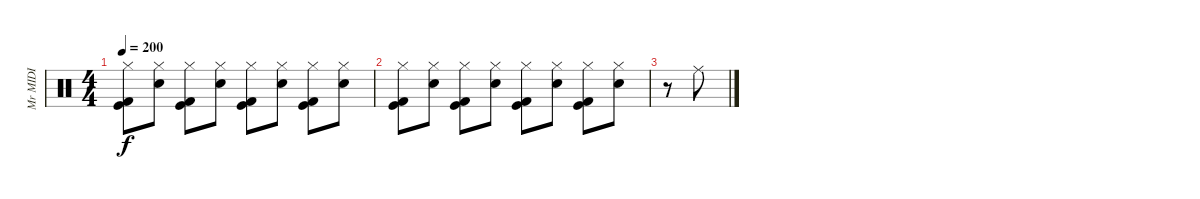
\track ("Mr MIDI" "Mr MIDI") {instrument percussion}
\staff {score}
\articulation defaults
\ts (4 4)
\tempo 200
\clef neutral
\ks c
("Hi-Hat (closed)" "Kick (hit) 2" "Kick (hit)").8{dy f} ("Hi-Hat (closed)" "Electric Snare (hit)").8 ("Hi-Hat (closed)" "Kick (hit) 2" "Kick (hit)").8 ("Hi-Hat (closed)" "Electric Snare (hit)").8 ("Hi-Hat (closed)" "Kick (hit) 2" "Kick (hit)").8 ("Hi-Hat (closed)" "Electric Snare (hit)").8 ("Hi-Hat (closed)" "Kick (hit) 2" "Kick (hit)").8 ("Hi-Hat (closed)" "Electric Snare (hit)").8 |
("Hi-Hat (closed)" "Kick (hit) 2" "Kick (hit)").8 ("Hi-Hat (closed)" "Electric Snare (hit)").8 ("Hi-Hat (closed)" "Kick (hit) 2" "Kick (hit)").8 ("Hi-Hat (closed)" "Electric Snare (hit)").8 ("Hi-Hat (closed)" "Kick (hit) 2" "Kick (hit)").8 ("Hi-Hat (closed)" "Electric Snare (hit)").8 ("Hi-Hat (closed)" "Kick (hit) 2" "Kick (hit)").8 ("Hi-Hat (closed)" "Electric Snare (hit)").8 |
r.8 "Ride (middle)".8
